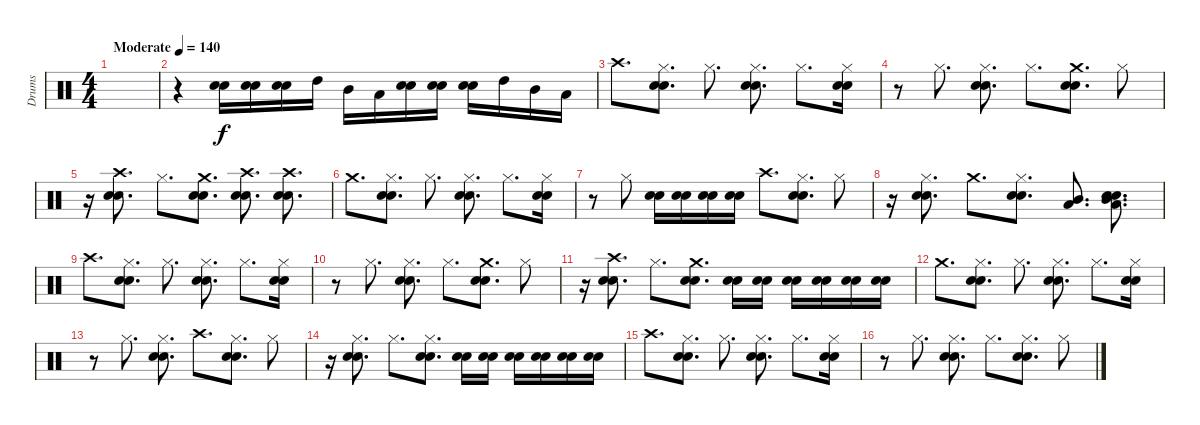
\track ("Drums" "Drums") {instrument percussion}
\staff {score}
\articulation defaults
\ts (4 4)
\tempo (140 "Moderate")
\clef neutral
\ks c
|
r.4 ("Electric Snare (hit)" "Snare (hit) 2").16 ("Electric Snare (hit)" "Snare (hit) 2").16 ("Electric Snare (hit)" "Snare (hit) 2").16 "High Tom (hit)".16 "Mid Tom (hit)".16 "Low Tom (hit)".16 ("Electric Snare (hit)" "Snare (hit) 2").16 ("Electric Snare (hit)" "Snare (hit) 2").16 ("Electric Snare (hit)" "Snare (hit) 2").16 "High Tom (hit)".16 "Mid Tom (hit)".16 "Low Tom (hit)".16 |
"Crash high (hit)".8{d} ("Hi-Hat (closed)" "Electric Snare (hit)" "Snare (hit) 2").8{d} "Hi-Hat (closed)".8{d} ("Hi-Hat (closed)" "Electric Snare (hit)" "Snare (hit) 2").8{d} "Hi-Hat (closed)".8{d} ("Hi-Hat (closed)" "Electric Snare (hit)" "Snare (hit) 2").16 |
r.8 "Hi-Hat (closed)".8{d} ("Hi-Hat (closed)" "Electric Snare (hit)" "Snare (hit) 2").8{d} "Hi-Hat (closed)".8{d} ("Crash medium (hit)" "Electric Snare (hit)" "Snare (hit) 2").8{d} "Hi-Hat (closed)".8 |
r.16 ("Crash high (hit)" "Electric Snare (hit)" "Snare (hit) 2").8{d} "Hi-Hat (closed)".8{d} ("Crash medium (hit)" "Electric Snare (hit)" "Snare (hit) 2").8{d} ("Crash high (hit)" "Electric Snare (hit)" "Snare (hit) 2").8{d} ("Crash high (hit)" "Electric Snare (hit)" "Snare (hit) 2").8{d} |
"Crash medium (hit)".8{d} ("Hi-Hat (closed)" "Electric Snare (hit)" "Snare (hit) 2").8{d} "Hi-Hat (closed)".8{d} ("Hi-Hat (closed)" "Electric Snare (hit)" "Snare (hit) 2").8{d} "Hi-Hat (closed)".8{d} ("Hi-Hat (closed)" "Electric Snare (hit)" "Snare (hit) 2").16 |
r.8 "Hi-Hat (closed)".8 ("Electric Snare (hit)" "Snare (hit) 2").16 ("Electric Snare (hit)" "Snare (hit) 2").16 ("Electric Snare (hit)" "Snare (hit) 2").16 ("Electric Snare (hit)" "Snare (hit) 2").16 "Crash high (hit)".8{d} ("Hi-Hat (closed)" "Electric Snare (hit)" "Snare (hit) 2").8{d} "Hi-Hat (closed)".8 |
r.16 ("Hi-Hat (closed)" "Electric Snare (hit)" "Snare (hit) 2").8{d} "Crash medium (hit)".8{d} ("Hi-Hat (closed)" "Electric Snare (hit)" "Snare (hit) 2").8{d} ("Mid Tom (hit)" "Low Tom (hit)").8{d bu 60} ("Mid Tom (hit)" "Low Tom (hit)" "Electric Snare (hit)" "Snare (hit) 2").8{d} |
"Crash high (hit)".8{d} ("Hi-Hat (closed)" "Electric Snare (hit)" "Snare (hit) 2").8{d} "Hi-Hat (closed)".8{d} ("Hi-Hat (closed)" "Electric Snare (hit)" "Snare (hit) 2").8{d} "Hi-Hat (closed)".8{d} ("Hi-Hat (closed)" "Electric Snare (hit)" "Snare (hit) 2").16 |
r.8 "Hi-Hat (closed)".8{d} ("Hi-Hat (closed)" "Electric Snare (hit)" "Snare (hit) 2").8{d} "Hi-Hat (closed)".8{d} ("Crash medium (hit)" "Electric Snare (hit)" "Snare (hit) 2").8{d} "Hi-Hat (closed)".8 |
r.16 ("Crash high (hit)" "Electric Snare (hit)" "Snare (hit) 2").8{d} "Hi-Hat (closed)".8{d} ("Crash medium (hit)" "Electric Snare (hit)" "Snare (hit) 2").8{d} ("Electric Snare (hit)" "Snare (hit) 2").16 ("Electric Snare (hit)" "Snare (hit) 2").16 ("Electric Snare (hit)" "Snare (hit) 2").16 ("Electric Snare (hit)" "Snare (hit) 2").16 ("Electric Snare (hit)" "Snare (hit) 2").16 ("Electric Snare (hit)" "Snare (hit) 2").16 |
"Crash medium (hit)".8{d} ("Hi-Hat (closed)" "Electric Snare (hit)" "Snare (hit) 2").8{d} "Hi-Hat (closed)".8{d} ("Hi-Hat (closed)" "Electric Snare (hit)" "Snare (hit) 2").8{d} "Hi-Hat (closed)".8{d} ("Hi-Hat (closed)" "Electric Snare (hit)" "Snare (hit) 2").16 |
r.8 "Hi-Hat (closed)".8{d} ("Hi-Hat (closed)" "Electric Snare (hit)" "Snare (hit) 2").8{d} "Crash high (hit)".8{d} ("Hi-Hat (closed)" "Electric Snare (hit)" "Snare (hit) 2").8{d} "Hi-Hat (closed)".8 |
r.16 ("Hi-Hat (closed)" "Electric Snare (hit)" "Snare (hit) 2").8{d} "Hi-Hat (closed)".8{d} ("Hi-Hat (closed)" "Electric Snare (hit)" "Snare (hit) 2").8{d} ("Electric Snare (hit)" "Snare (hit) 2").16 ("Electric Snare (hit)" "Snare (hit) 2").16 ("Electric Snare (hit)" "Snare (hit) 2").16 ("Electric Snare (hit)" "Snare (hit) 2").16 ("Electric Snare (hit)" "Snare (hit) 2").16 ("Electric Snare (hit)" "Snare (hit) 2").16 |
"Crash high (hit)".8{d} ("Hi-Hat (closed)" "Electric Snare (hit)" "Snare (hit) 2").8{d} "Hi-Hat (closed)".8{d} ("Hi-Hat (closed)" "Electric Snare (hit)" "Snare (hit) 2").8{d} "Hi-Hat (closed)".8{d} ("Hi-Hat (closed)" "Electric Snare (hit)" "Snare (hit) 2").16 |
r.8 "Hi-Hat (closed)".8{d} ("Hi-Hat (closed)" "Electric Snare (hit)" "Snare (hit) 2").8{d} "Hi-Hat (closed)".8{d} ("Hi-Hat (closed)" "Electric Snare (hit)" "Snare (hit) 2").8{d} "Hi-Hat (closed)".8
